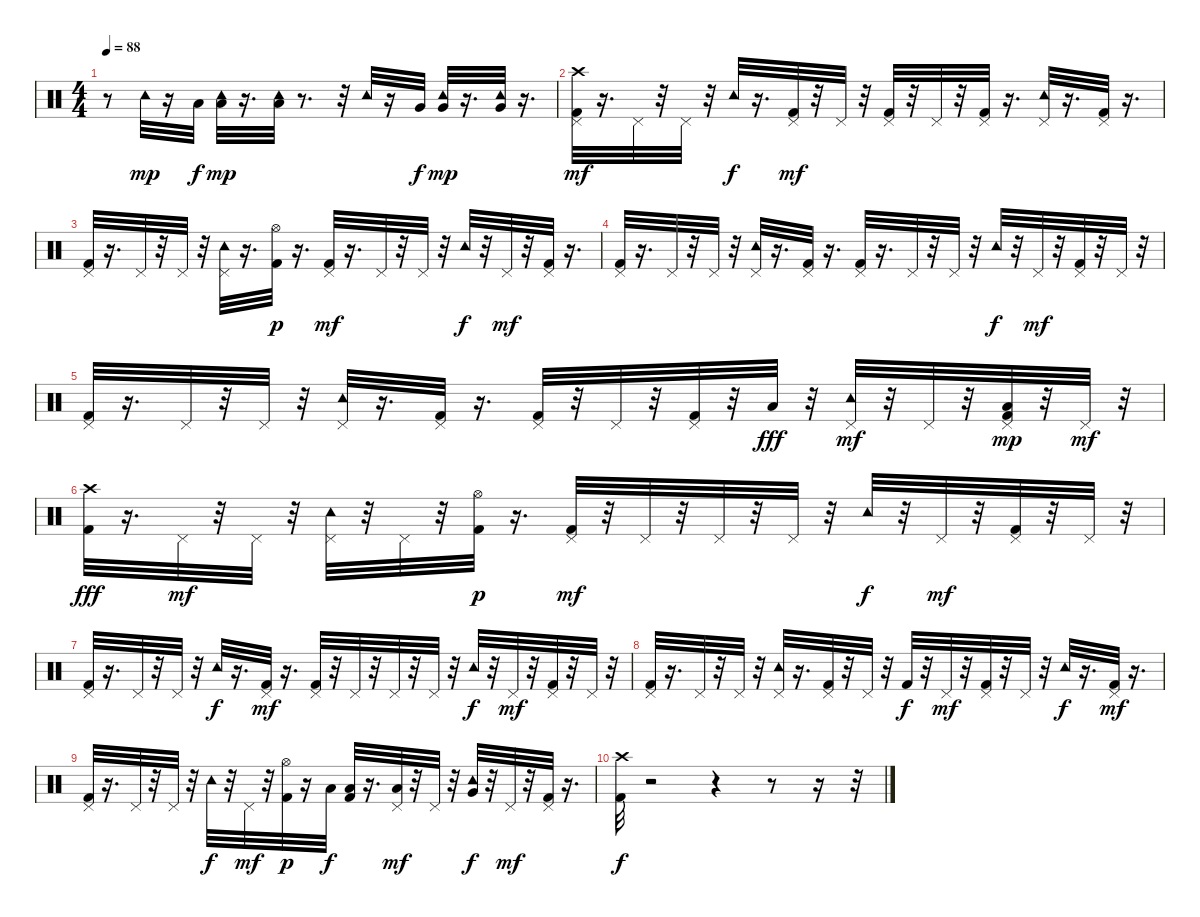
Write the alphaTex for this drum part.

\track "" {instrument percussion}
\staff {score}
\articulation defaults
\ts (4 4)
\tempo 88
\clef neutral
\ks c
r.8{dy mp} "Tambourine (hit)".32 r.16 "Low Tom (hit)".32{dy f} ("Tambourine (hit)" "Low Tom (hit)").32{dy mp} r.16{d} ("Tambourine (hit)" "Low Tom (hit)").32 r.8{d} r.32 "Tambourine (hit)".32 r.16 "Very Low Tom (hit)".32{dy f} ("Tambourine (hit)" "Very Low Tom (hit)").32{dy mp} r.16{d} ("Tambourine (hit)" "Very Low Tom (hit)").32 r.16{d} |
("Crash high (hit)" "Pedal Hi-Hat (hit)" "Kick (hit) 2").32{dy mf} r.16{d} "Pedal Hi-Hat (hit)".32 r.32 "Pedal Hi-Hat (hit)".32 r.32 "Tambourine (hit)".32{dy f} r.16{d} ("Pedal Hi-Hat (hit)" "Kick (hit) 2").32{dy mf} r.32 "Pedal Hi-Hat (hit)".32 r.32 ("Kick (hit) 2" "Pedal Hi-Hat (hit)").32 r.32 "Pedal Hi-Hat (hit)".32 r.32 ("Kick (hit) 2" "Pedal Hi-Hat (hit)").32 r.16{d} ("Pedal Hi-Hat (hit)" "Tambourine (hit)").32 r.16{d} ("Kick (hit) 2" "Pedal Hi-Hat (hit)").32 r.16{d} |
("Kick (hit) 2" "Pedal Hi-Hat (hit)").32 r.16{d} "Pedal Hi-Hat (hit)".32 r.32 "Pedal Hi-Hat (hit)".32 r.32 ("Pedal Hi-Hat (hit)" "Tambourine (hit)").32 r.16{d} ("Kick (hit) 2" "Hi-Hat (open)").32{dy p} r.16{d} ("Kick (hit) 2" "Pedal Hi-Hat (hit)").32{dy mf} r.16{d} "Pedal Hi-Hat (hit)".32 r.32 "Pedal Hi-Hat (hit)".32 r.32 "Tambourine (hit)".32{dy f} r.32 "Pedal Hi-Hat (hit)".32{dy mf} r.32 ("Pedal Hi-Hat (hit)" "Kick (hit) 2").32 r.16{d} |
("Kick (hit) 2" "Pedal Hi-Hat (hit)").32 r.16{d} "Pedal Hi-Hat (hit)".32 r.32 "Pedal Hi-Hat (hit)".32 r.32 ("Pedal Hi-Hat (hit)" "Tambourine (hit)").32 r.16{d} ("Kick (hit) 2" "Pedal Hi-Hat (hit)").32 r.16{d} ("Pedal Hi-Hat (hit)" "Kick (hit) 2").32 r.16{d} "Pedal Hi-Hat (hit)".32 r.32 "Pedal Hi-Hat (hit)".32 r.32 "Tambourine (hit)".32{dy f} r.32 "Pedal Hi-Hat (hit)".32{dy mf} r.32 ("Kick (hit) 2" "Pedal Hi-Hat (hit)").32 r.32 "Pedal Hi-Hat (hit)".32 r.32 |
("Pedal Hi-Hat (hit)" "Kick (hit) 2").32 r.16{d} "Pedal Hi-Hat (hit)".32 r.32 "Pedal Hi-Hat (hit)".32 r.32 ("Pedal Hi-Hat (hit)" "Tambourine (hit)").32 r.16{d} ("Pedal Hi-Hat (hit)" "Kick (hit) 2").32 r.16{d} ("Pedal Hi-Hat (hit)" "Kick (hit) 2").32 r.32 "Pedal Hi-Hat (hit)".32 r.32 ("Kick (hit) 2" "Pedal Hi-Hat (hit)").32 r.32 "Low Tom (hit)".32{dy fff} r.32 ("Pedal Hi-Hat (hit)" "Tambourine (hit)").32{dy mf} r.32 "Pedal Hi-Hat (hit)".32 r.32 ("Low Tom (hit)" "Pedal Hi-Hat (hit)" "Kick (hit) 2").32{dy mp} r.32 "Pedal Hi-Hat (hit)".32{dy mf} r.32 |
("Crash high (hit)" "Kick (hit) 2").32{dy fff} r.16{d} "Pedal Hi-Hat (hit)".32{dy mf} r.32 "Pedal Hi-Hat (hit)".32 r.32 ("Tambourine (hit)" "Pedal Hi-Hat (hit)").32 r.32 "Pedal Hi-Hat (hit)".32 r.32 ("Kick (hit) 2" "Hi-Hat (open)").32{dy p} r.16{d} ("Kick (hit) 2" "Pedal Hi-Hat (hit)").32{dy mf} r.32 "Pedal Hi-Hat (hit)".32 r.32 "Pedal Hi-Hat (hit)".32 r.32 "Pedal Hi-Hat (hit)".32 r.32 "Tambourine (hit)".32{dy f} r.32 "Pedal Hi-Hat (hit)".32{dy mf} r.32 ("Pedal Hi-Hat (hit)" "Kick (hit) 2").32 r.32 "Pedal Hi-Hat (hit)".32 r.32 |
("Kick (hit) 2" "Pedal Hi-Hat (hit)").32 r.16{d} "Pedal Hi-Hat (hit)".32 r.32 "Pedal Hi-Hat (hit)".32 r.32 "Tambourine (hit)".32{dy f} r.16{d} ("Kick (hit) 2" "Pedal Hi-Hat (hit)").32{dy mf} r.16{d} ("Pedal Hi-Hat (hit)" "Kick (hit) 2").32 r.32 "Pedal Hi-Hat (hit)".32 r.32 "Pedal Hi-Hat (hit)".32 r.32 "Pedal Hi-Hat (hit)".32 r.32 "Tambourine (hit)".32{dy f} r.32 "Pedal Hi-Hat (hit)".32{dy mf} r.32 ("Kick (hit) 2" "Pedal Hi-Hat (hit)").32 r.32 "Pedal Hi-Hat (hit)".32 r.32 |
("Pedal Hi-Hat (hit)" "Kick (hit) 2").32 r.16{d} "Pedal Hi-Hat (hit)".32 r.32 "Pedal Hi-Hat (hit)".32 r.32 ("Pedal Hi-Hat (hit)" "Tambourine (hit)").32 r.16{d} ("Pedal Hi-Hat (hit)" "Kick (hit) 2").32 r.32 "Pedal Hi-Hat (hit)".32 r.32 "Kick (hit) 2".32{dy f} r.32 "Pedal Hi-Hat (hit)".32{dy mf} r.32 ("Kick (hit) 2" "Pedal Hi-Hat (hit)").32 r.32 "Pedal Hi-Hat (hit)".32 r.32 "Tambourine (hit)".32{dy f} r.16{d} ("Kick (hit) 2" "Pedal Hi-Hat (hit)").32{dy mf} r.16{d} |
("Kick (hit) 2" "Pedal Hi-Hat (hit)").32 r.16{d} "Pedal Hi-Hat (hit)".32 r.32 "Pedal Hi-Hat (hit)".32 r.32 "Tambourine (hit)".32{dy f} r.32 "Pedal Hi-Hat (hit)".32{dy mf} r.32 ("Kick (hit) 2" "Hi-Hat (open)").32{dy p} r.16 "Low Tom (hit)".32{dy f} ("Low Tom (hit)" "Kick (hit) 2").32 r.16{d} ("Pedal Hi-Hat (hit)" "Low Tom (hit)").32{dy mf} r.32 "Pedal Hi-Hat (hit)".32 r.32 ("Tambourine (hit)" "Very Low Tom (hit)").32{dy f} r.32 "Pedal Hi-Hat (hit)".32{dy mf} r.32 ("Kick (hit) 2" "Pedal Hi-Hat (hit)").32 r.16{d} |
("Kick (hit) 2" "Crash high (hit)").32{dy f} r.2 r.4 r.8 r.16 r.32
